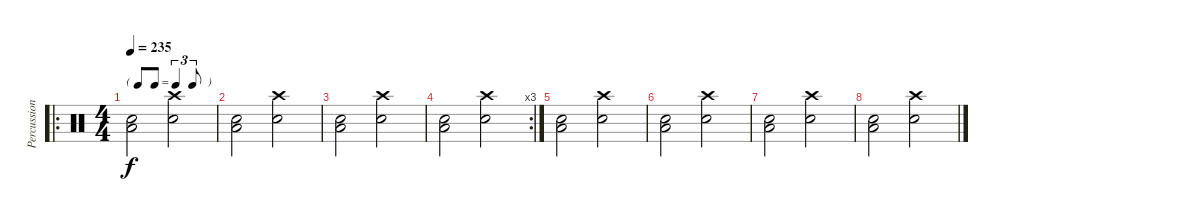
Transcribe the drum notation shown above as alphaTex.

\track ("Percussions" "Percussion") {instrument percussion}
\staff {score}
\articulation defaults
\ro
\ts (4 4)
\tf triplet8th
\tempo 235
\clef neutral
\ks c
("Low Tom (hit)" "Snare (hit) 2").2{dy f} ("Snare (hit) 2" "Crash high (hit)").2 |
("Low Tom (hit)" "Snare (hit) 2").2 ("Snare (hit) 2" "Crash high (hit)").2 |
("Low Tom (hit)" "Snare (hit) 2").2 ("Snare (hit) 2" "Crash high (hit)").2 |
\rc 3
("Low Tom (hit)" "Snare (hit) 2").2 ("Snare (hit) 2" "Crash high (hit)").2 |
("Low Tom (hit)" "Snare (hit) 2").2 ("Snare (hit) 2" "Crash high (hit)").2 |
("Low Tom (hit)" "Snare (hit) 2").2 ("Snare (hit) 2" "Crash high (hit)").2 |
("Low Tom (hit)" "Snare (hit) 2").2 ("Snare (hit) 2" "Crash high (hit)").2 |
("Low Tom (hit)" "Snare (hit) 2").2 ("Snare (hit) 2" "Crash high (hit)").2
